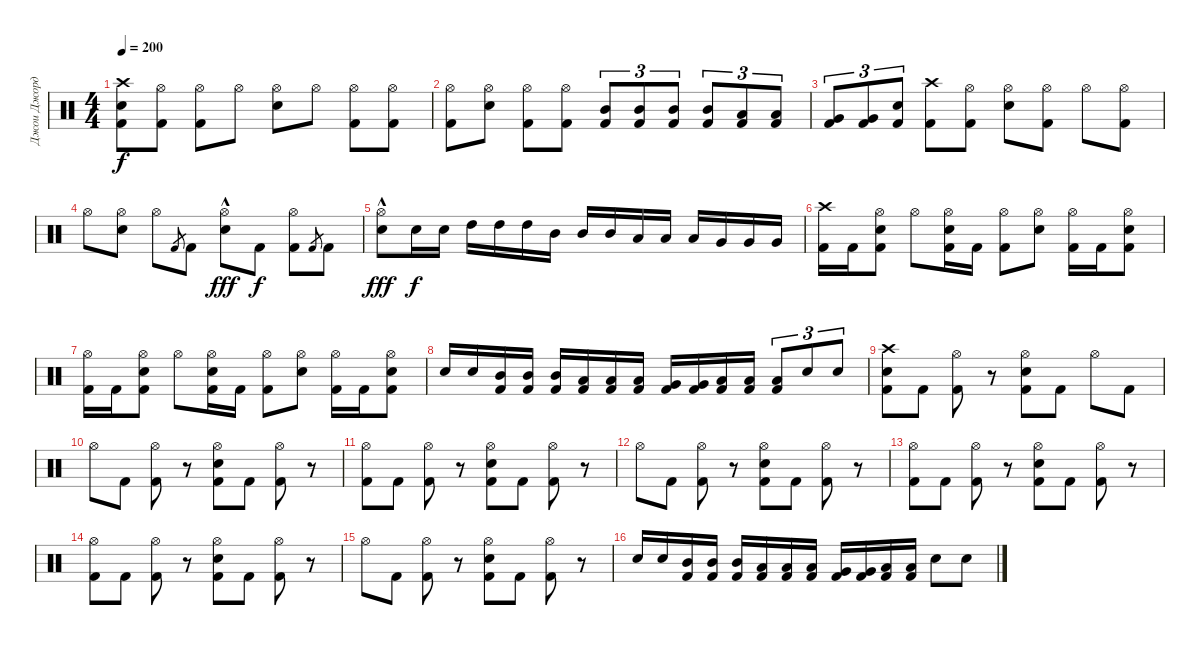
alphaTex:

\track ("Джои Джордисон" "Джои Джорд") {instrument percussion}
\staff {score}
\articulation defaults
\ts (4 4)
\tempo 200
\clef neutral
\ks c
("Crash high (hit)" "Electric Snare (hit)" "Kick (hit) 2").8{dy f} ("Hi-Hat (open)" "Kick (hit) 2").8 ("Hi-Hat (open)" "Kick (hit) 2").8 "Hi-Hat (open)".8 ("Hi-Hat (open)" "Electric Snare (hit)").8 "Hi-Hat (open)".8 ("Hi-Hat (open)" "Kick (hit) 2").8 ("Hi-Hat (open)" "Kick (hit) 2").8 |
("Hi-Hat (open)" "Kick (hit) 2").8 ("Hi-Hat (open)" "Electric Snare (hit)").8 ("Hi-Hat (open)" "Kick (hit) 2").8 ("Hi-Hat (open)" "Kick (hit) 2").8 ("Mid Tom (hit)" "Kick (hit) 2").8{tu (3 2)} ("Mid Tom (hit)" "Kick (hit) 2").8{tu (3 2)} ("Mid Tom (hit)" "Kick (hit) 2").8{tu (3 2)} ("Mid Tom (hit)" "Kick (hit) 2").8{tu (3 2)} ("Low Tom (hit)" "Kick (hit) 2").8{tu (3 2)} ("Low Tom (hit)" "Kick (hit) 2").8{tu (3 2)} |
("Very Low Tom (hit)" "Kick (hit) 2").8{tu (3 2)} ("Very Low Tom (hit)" "Kick (hit) 2").8{tu (3 2)} ("Electric Snare (hit)" "Kick (hit) 2").8{tu (3 2)} ("Crash high (hit)" "Kick (hit) 2").8 ("Hi-Hat (open)" "Kick (hit) 2").8 ("Hi-Hat (open)" "Electric Snare (hit)").8 ("Hi-Hat (open)" "Kick (hit) 2").8 "Hi-Hat (open)".8 ("Hi-Hat (open)" "Kick (hit) 2").8 |
"Hi-Hat (open)".8 ("Hi-Hat (open)" "Electric Snare (hit)").8 "Hi-Hat (open)".8 "Kick (hit) 2".8{gr} "Kick (hit) 2".8 ("Hi-Hat (open)"{hac} "Electric Snare (hit)").8{dy fff} "Kick (hit) 2".8{dy f} ("Hi-Hat (open)" "Kick (hit) 2").8 "Kick (hit) 2".8{gr} "Kick (hit) 2".8 |
("Hi-Hat (open)"{hac} "Electric Snare (hit)").8{dy fff} "Electric Snare (hit)".16{dy f} "Electric Snare (hit)".16 "High Tom (hit)".16 "High Tom (hit)".16 "High Tom (hit)".16 "Mid Tom (hit)".16 "Mid Tom (hit)".16 "Mid Tom (hit)".16 "Low Tom (hit)".16 "Low Tom (hit)".16 "Low Tom (hit)".16 "Very Low Tom (hit)".16 "Very Low Tom (hit)".16 "Very Low Tom (hit)".16 |
("Crash high (hit)" "Kick (hit) 2").16 "Kick (hit) 2".16 ("Hi-Hat (open)" "Electric Snare (hit)" "Kick (hit) 2").8 "Hi-Hat (open)".8 ("Hi-Hat (open)" "Electric Snare (hit)" "Kick (hit) 2").16 "Kick (hit) 2".16 ("Hi-Hat (open)" "Kick (hit) 2").8 ("Hi-Hat (open)" "Electric Snare (hit)").8 ("Hi-Hat (open)" "Kick (hit) 2").16 "Kick (hit) 2".16 ("Hi-Hat (open)" "Electric Snare (hit)" "Kick (hit) 2").8 |
("Hi-Hat (open)" "Kick (hit) 2").16 "Kick (hit) 2".16 ("Hi-Hat (open)" "Electric Snare (hit)" "Kick (hit) 2").8 "Hi-Hat (open)".8 ("Hi-Hat (open)" "Electric Snare (hit)" "Kick (hit) 2").16 "Kick (hit) 2".16 ("Hi-Hat (open)" "Kick (hit) 2").8 ("Hi-Hat (open)" "Electric Snare (hit)").8 ("Hi-Hat (open)" "Kick (hit) 2").16 "Kick (hit) 2".16 ("Hi-Hat (open)" "Electric Snare (hit)" "Kick (hit) 2").8 |
"Electric Snare (hit)".16 "Electric Snare (hit)".16 ("Mid Tom (hit)" "Kick (hit) 2").16 ("Mid Tom (hit)" "Kick (hit) 2").16 ("Mid Tom (hit)" "Kick (hit) 2").16 ("Low Tom (hit)" "Kick (hit) 2").16 ("Low Tom (hit)" "Kick (hit) 2").16 ("Low Tom (hit)" "Kick (hit) 2").16 ("Very Low Tom (hit)" "Kick (hit) 2").16 ("Very Low Tom (hit)" "Kick (hit) 2").16 ("Low Floor Tom (hit)" "Kick (hit) 2").16 ("Low Floor Tom (hit)" "Kick (hit) 2").16 ("Low Floor Tom (hit)" "Kick (hit) 2").8{tu (3 2)} "Electric Snare (hit)".8{tu (3 2)} "Electric Snare (hit)".8{tu (3 2)} |
("Crash high (hit)" "Electric Snare (hit)" "Kick (hit) 2").8 "Kick (hit) 2".8 ("Hi-Hat (open)" "Kick (hit) 2").8 r.8 ("Hi-Hat (open)" "Electric Snare (hit)" "Kick (hit) 2").8 "Kick (hit) 2".8 "Hi-Hat (open)".8 "Kick (hit) 2".8 |
"Hi-Hat (open)".8 "Kick (hit) 2".8 ("Hi-Hat (open)" "Kick (hit) 2").8 r.8 ("Hi-Hat (open)" "Electric Snare (hit)" "Kick (hit) 2").8 "Kick (hit) 2".8 ("Hi-Hat (open)" "Kick (hit) 2").8 r.8 |
("Hi-Hat (open)" "Kick (hit) 2").8 "Kick (hit) 2".8 ("Hi-Hat (open)" "Kick (hit) 2").8 r.8 ("Hi-Hat (open)" "Electric Snare (hit)" "Kick (hit) 2").8 "Kick (hit) 2".8 ("Hi-Hat (open)" "Kick (hit) 2").8 r.8 |
"Hi-Hat (open)".8 "Kick (hit) 2".8 ("Hi-Hat (open)" "Kick (hit) 2").8 r.8 ("Hi-Hat (open)" "Electric Snare (hit)" "Kick (hit) 2").8 "Kick (hit) 2".8 ("Hi-Hat (open)" "Kick (hit) 2").8 r.8 |
("Hi-Hat (open)" "Kick (hit) 2").8 "Kick (hit) 2".8 ("Hi-Hat (open)" "Kick (hit) 2").8 r.8 ("Hi-Hat (open)" "Electric Snare (hit)" "Kick (hit) 2").8 "Kick (hit) 2".8 ("Hi-Hat (open)" "Kick (hit) 2").8 r.8 |
("Hi-Hat (open)" "Kick (hit) 2").8 "Kick (hit) 2".8 ("Hi-Hat (open)" "Kick (hit) 2").8 r.8 ("Hi-Hat (open)" "Electric Snare (hit)" "Kick (hit) 2").8 "Kick (hit) 2".8 ("Hi-Hat (open)" "Kick (hit) 2").8 r.8 |
"Hi-Hat (open)".8 "Kick (hit) 2".8 ("Hi-Hat (open)" "Kick (hit) 2").8 r.8 ("Hi-Hat (open)" "Electric Snare (hit)" "Kick (hit) 2").8 "Kick (hit) 2".8 ("Hi-Hat (open)" "Kick (hit) 2").8 r.8 |
"Electric Snare (hit)".16 "Electric Snare (hit)".16 ("Mid Tom (hit)" "Kick (hit) 2").16 ("Mid Tom (hit)" "Kick (hit) 2").16 ("Mid Tom (hit)" "Kick (hit) 2").16 ("Low Tom (hit)" "Kick (hit) 2").16 ("Low Tom (hit)" "Kick (hit) 2").16 ("Low Tom (hit)" "Kick (hit) 2").16 ("Very Low Tom (hit)" "Kick (hit) 2").16 ("Very Low Tom (hit)" "Kick (hit) 2").16 ("Low Floor Tom (hit)" "Kick (hit) 2").16 ("Low Floor Tom (hit)" "Kick (hit) 2").16 "Electric Snare (hit)".8 "Electric Snare (hit)".8
